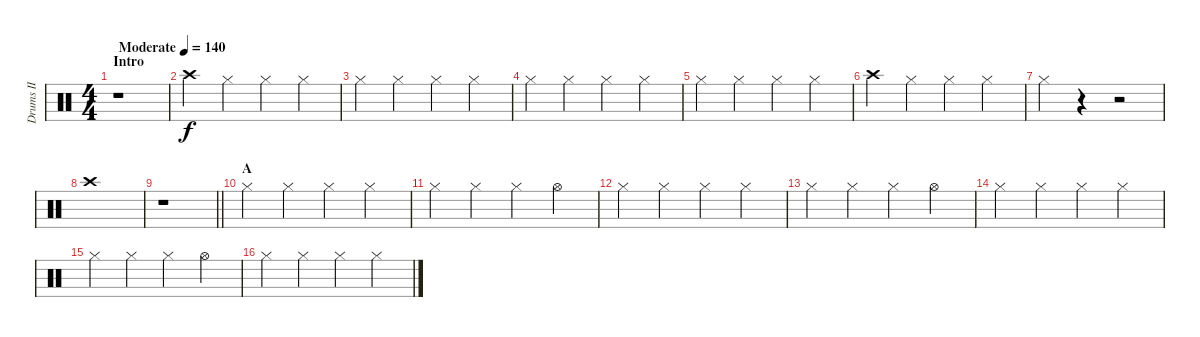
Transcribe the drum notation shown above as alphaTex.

\track ("Drums II" "Drums II") {instrument percussion}
\staff {score}
\articulation defaults
\ts (4 4)
\section ("" "Intro")
\tempo (140 "Moderate")
\clef neutral
\ks c
r.1{dy f} |
"Crash high (hit)".4 "Hi-Hat (closed)".4 "Hi-Hat (closed)".4 "Hi-Hat (closed)".4 |
"Hi-Hat (closed)".4 "Hi-Hat (closed)".4 "Hi-Hat (closed)".4 "Hi-Hat (closed)".4 |
"Hi-Hat (closed)".4 "Hi-Hat (closed)".4 "Hi-Hat (closed)".4 "Hi-Hat (closed)".4 |
"Hi-Hat (closed)".4 "Hi-Hat (closed)".4 "Hi-Hat (closed)".4 "Hi-Hat (closed)".4 |
"Crash high (hit)".4 "Hi-Hat (closed)".4 "Hi-Hat (closed)".4 "Hi-Hat (closed)".4 |
"Hi-Hat (closed)".4 r.4 r.2 |
"Crash high (hit)".1 |
\barLineRight lightlight
r.1 |
\section ("" "A")
"Hi-Hat (closed)".4 "Hi-Hat (closed)".4 "Hi-Hat (closed)".4 "Hi-Hat (closed)".4 |
"Hi-Hat (closed)".4 "Hi-Hat (closed)".4 "Hi-Hat (closed)".4 "Hi-Hat (open)".4 |
"Hi-Hat (closed)".4 "Hi-Hat (closed)".4 "Hi-Hat (closed)".4 "Hi-Hat (closed)".4 |
"Hi-Hat (closed)".4 "Hi-Hat (closed)".4 "Hi-Hat (closed)".4 "Hi-Hat (open)".4 |
"Hi-Hat (closed)".4 "Hi-Hat (closed)".4 "Hi-Hat (closed)".4 "Hi-Hat (closed)".4 |
"Hi-Hat (closed)".4 "Hi-Hat (closed)".4 "Hi-Hat (closed)".4 "Hi-Hat (open)".4 |
"Hi-Hat (closed)".4 "Hi-Hat (closed)".4 "Hi-Hat (closed)".4 "Hi-Hat (closed)".4
